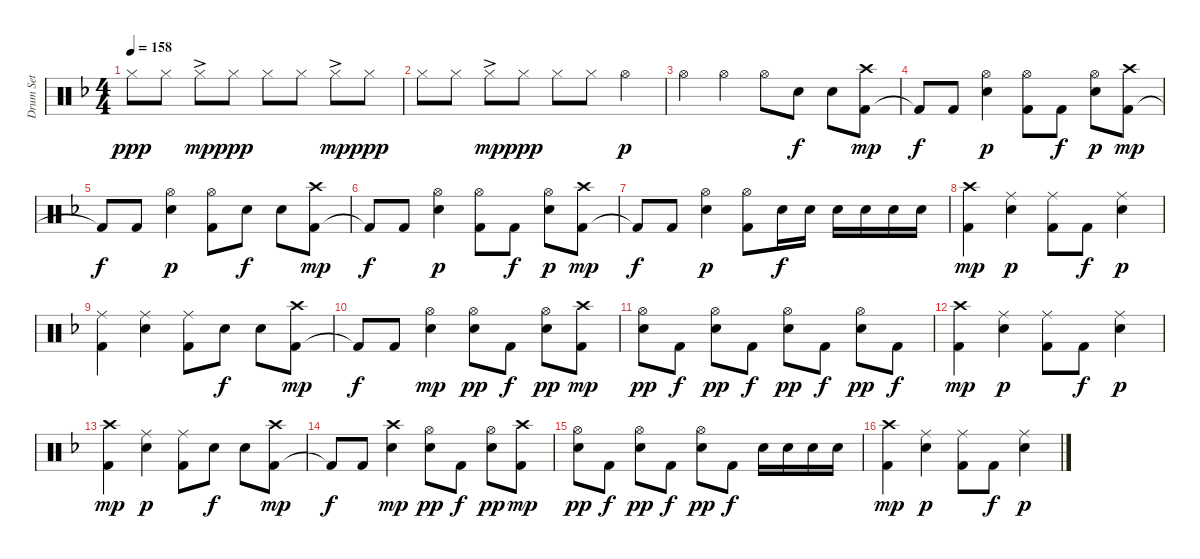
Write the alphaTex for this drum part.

\track ("Drum Set" "Drum Set") {instrument percussion}
\staff {score}
\articulation defaults
\ts (4 4)
\tempo 158
\clef neutral
\ks f "Hi-Hat (closed)".8{dy ppp} "Hi-Hat (closed)".8 "Hi-Hat (closed)"{ac}.8{dy mp} "Hi-Hat (closed)".8{dy ppp} "Hi-Hat (closed)".8 "Hi-Hat (closed)".8 "Hi-Hat (closed)"{ac}.8{dy mp} "Hi-Hat (closed)".8{dy ppp}
|
"Hi-Hat (closed)".8 "Hi-Hat (closed)".8 "Hi-Hat (closed)"{ac}.8{dy mp} "Hi-Hat (closed)".8{dy ppp} "Hi-Hat (closed)".8 "Hi-Hat (closed)".8 "Hi-Hat (open)".4{dy p volume 13} |
"Hi-Hat (open)".4 "Hi-Hat (open)".4 "Hi-Hat (open)".8 "Electric Snare (hit)".8{dy f} "Electric Snare (hit)".8 ("Kick (hit) 2" "Crash high (hit)").8{dy mp} |
"Kick (hit) 2"{t}.8{dy f} "Kick (hit) 2".8 ("Electric Snare (hit)" "Hi-Hat (open)").4{dy p} ("Kick (hit) 2" "Hi-Hat (open)").8 "Kick (hit) 2".8{dy f} ("Electric Snare (hit)" "Hi-Hat (open)").8{dy p} ("Kick (hit) 2" "Crash high (hit)").8{dy mp} |
"Kick (hit) 2"{t}.8{dy f} "Kick (hit) 2".8 ("Electric Snare (hit)" "Hi-Hat (open)").4{dy p} ("Kick (hit) 2" "Hi-Hat (open)").8 "Electric Snare (hit)".8{dy f} "Electric Snare (hit)".8 ("Kick (hit) 2" "Crash high (hit)").8{dy mp} |
"Kick (hit) 2"{t}.8{dy f} "Kick (hit) 2".8 ("Electric Snare (hit)" "Hi-Hat (open)").4{dy p} ("Kick (hit) 2" "Hi-Hat (open)").8 "Kick (hit) 2".8{dy f} ("Electric Snare (hit)" "Hi-Hat (open)").8{dy p} ("Kick (hit) 2" "Crash high (hit)").8{dy mp} |
"Kick (hit) 2"{t}.8{dy f} "Kick (hit) 2".8 ("Electric Snare (hit)" "Hi-Hat (open)").4{dy p} ("Kick (hit) 2" "Hi-Hat (open)").8 "Electric Snare (hit)".16{dy f} "Electric Snare (hit)".16 "Electric Snare (hit)".16 "Electric Snare (hit)".16 "Electric Snare (hit)".16 "Electric Snare (hit)".16 |
("Kick (hit) 2" "Crash high (hit)").4{dy mp} ("Electric Snare (hit)" "Ride (middle)").4{dy p} ("Kick (hit) 2" "Ride (middle)").8 "Kick (hit) 2".8{dy f} ("Electric Snare (hit)" "Ride (middle)").4{dy p} |
("Kick (hit) 2" "Ride (middle)").4 ("Electric Snare (hit)" "Ride (middle)").4 ("Kick (hit) 2" "Ride (middle)").8 "Electric Snare (hit)".8{dy f} "Electric Snare (hit)".8 ("Kick (hit) 2" "Crash high (hit)").8{dy mp} |
"Kick (hit) 2"{t}.8{dy f} "Kick (hit) 2".8 ("Electric Snare (hit)" "Hi-Hat (open)").4{dy mp} ("Electric Snare (hit)" "Hi-Hat (open)").8{dy pp} "Kick (hit) 2".8{dy f} ("Electric Snare (hit)" "Hi-Hat (open)").8{dy pp} ("Kick (hit) 2" "Crash high (hit)").8{dy mp} |
("Electric Snare (hit)" "Hi-Hat (open)").8{dy pp} "Kick (hit) 2".8{dy f} ("Electric Snare (hit)" "Hi-Hat (open)").8{dy pp} "Kick (hit) 2".8{dy f} ("Electric Snare (hit)" "Hi-Hat (open)").8{dy pp} "Kick (hit) 2".8{dy f} ("Electric Snare (hit)" "Hi-Hat (open)").8{dy pp} "Kick (hit) 2".8{dy f} |
("Kick (hit) 2" "Crash high (hit)").4{dy mp} ("Electric Snare (hit)" "Ride (middle)").4{dy p} ("Kick (hit) 2" "Ride (middle)").8 "Kick (hit) 2".8{dy f} ("Electric Snare (hit)" "Ride (middle)").4{dy p} |
("Kick (hit) 2" "Crash high (hit)").4{dy mp} ("Electric Snare (hit)" "Ride (middle)").4{dy p} ("Kick (hit) 2" "Ride (middle)").8 "Electric Snare (hit)".8{dy f} "Electric Snare (hit)".8 ("Kick (hit) 2" "Crash high (hit)").8{dy mp} |
"Kick (hit) 2"{t}.8{dy f} "Kick (hit) 2".8 ("Electric Snare (hit)" "Crash high (hit)").4{dy mp} ("Electric Snare (hit)" "Hi-Hat (open)").8{dy pp} "Kick (hit) 2".8{dy f} ("Electric Snare (hit)" "Hi-Hat (open)").8{dy pp} ("Kick (hit) 2" "Crash high (hit)").8{dy mp} |
("Electric Snare (hit)" "Hi-Hat (open)").8{dy pp} "Kick (hit) 2".8{dy f} ("Electric Snare (hit)" "Hi-Hat (open)").8{dy pp} "Kick (hit) 2".8{dy f} ("Electric Snare (hit)" "Hi-Hat (open)").8{dy pp} "Kick (hit) 2".8{dy f} "Electric Snare (hit)".16 "Electric Snare (hit)".16 "Electric Snare (hit)".16 "Electric Snare (hit)".16 |
("Kick (hit) 2" "Crash high (hit)").4{dy mp} ("Electric Snare (hit)" "Ride (middle)").4{dy p} ("Kick (hit) 2" "Ride (middle)").8 "Kick (hit) 2".8{dy f} ("Electric Snare (hit)" "Ride (middle)").4{dy p}
